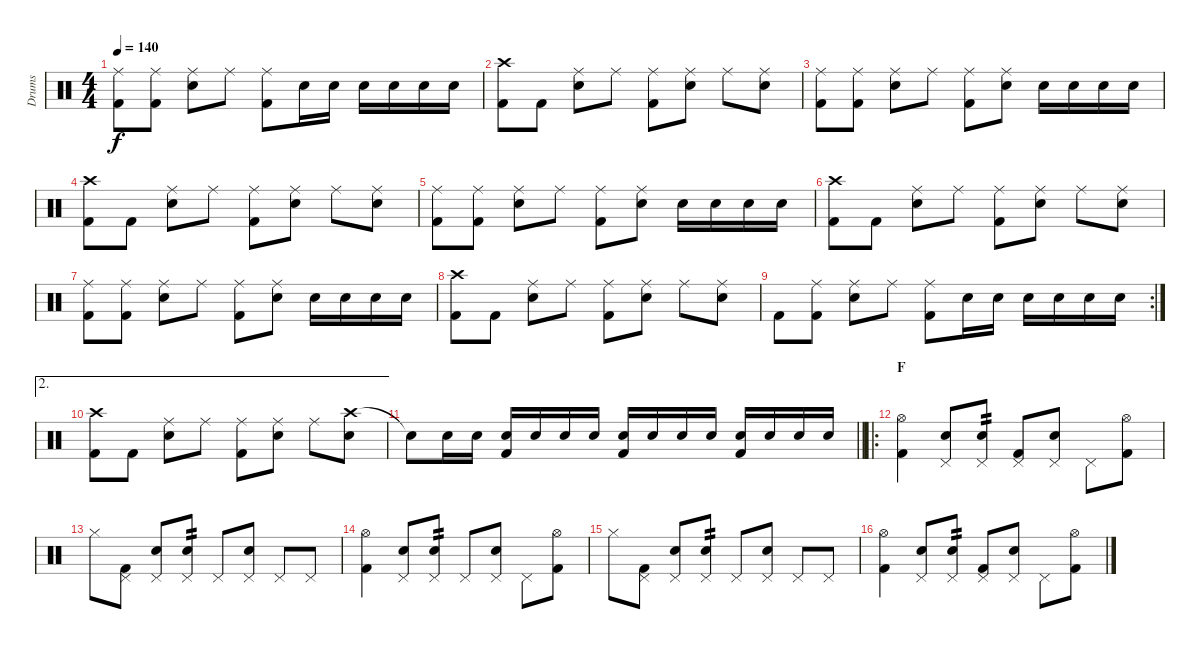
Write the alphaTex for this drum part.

\track ("Drums" "Drums") {instrument percussion}
\staff {score}
\articulation defaults
\ts (4 4)
\tempo 140
\clef neutral
\ks c
("Ride (middle)" "Kick (hit) 2").8{dy f} ("Ride (middle)" "Kick (hit) 2").8 ("Ride (middle)" "Snare (hit) 2").8 "Ride (middle)".8 ("Ride (middle)" "Kick (hit) 2").8 "Snare (hit) 2".16 "Snare (hit) 2".16 "Snare (hit) 2".16 "Snare (hit) 2".16 "Snare (hit) 2".16 "Snare (hit) 2".16 |
("Crash high (hit)" "Kick (hit) 2").8 "Kick (hit) 2".8 ("Ride (middle)" "Snare (hit) 2").8 "Ride (middle)".8 ("Ride (middle)" "Kick (hit) 2").8 ("Ride (middle)" "Snare (hit) 2").8 "Ride (middle)".8 ("Ride (middle)" "Snare (hit) 2").8 |
("Ride (middle)" "Kick (hit) 2").8 ("Ride (middle)" "Kick (hit) 2").8 ("Ride (middle)" "Snare (hit) 2").8 "Ride (middle)".8 ("Ride (middle)" "Kick (hit) 2").8 ("Ride (middle)" "Snare (hit) 2").8 "Snare (hit) 2".16 "Snare (hit) 2".16 "Snare (hit) 2".16 "Snare (hit) 2".16 |
("Crash high (hit)" "Kick (hit) 2").8 "Kick (hit) 2".8 ("Ride (middle)" "Snare (hit) 2").8 "Ride (middle)".8 ("Ride (middle)" "Kick (hit) 2").8 ("Ride (middle)" "Snare (hit) 2").8 "Ride (middle)".8 ("Ride (middle)" "Snare (hit) 2").8 |
("Ride (middle)" "Kick (hit) 2").8 ("Ride (middle)" "Kick (hit) 2").8 ("Ride (middle)" "Snare (hit) 2").8 "Ride (middle)".8 ("Ride (middle)" "Kick (hit) 2").8 ("Ride (middle)" "Snare (hit) 2").8 "Snare (hit) 2".16 "Snare (hit) 2".16 "Snare (hit) 2".16 "Snare (hit) 2".16 |
("Crash high (hit)" "Kick (hit) 2").8 "Kick (hit) 2".8 ("Ride (middle)" "Snare (hit) 2").8 "Ride (middle)".8 ("Ride (middle)" "Kick (hit) 2").8 ("Ride (middle)" "Snare (hit) 2").8 "Ride (middle)".8 ("Ride (middle)" "Snare (hit) 2").8 |
("Ride (middle)" "Kick (hit) 2").8 ("Ride (middle)" "Kick (hit) 2").8 ("Ride (middle)" "Snare (hit) 2").8 "Ride (middle)".8 ("Ride (middle)" "Kick (hit) 2").8 ("Ride (middle)" "Snare (hit) 2").8 "Snare (hit) 2".16 "Snare (hit) 2".16 "Snare (hit) 2".16 "Snare (hit) 2".16 |
("Crash high (hit)" "Kick (hit) 2").8 "Kick (hit) 2".8 ("Ride (middle)" "Snare (hit) 2").8 "Ride (middle)".8 ("Ride (middle)" "Kick (hit) 2").8 ("Ride (middle)" "Snare (hit) 2").8 "Ride (middle)".8 ("Ride (middle)" "Snare (hit) 2").8 |
\rc 2 "Kick (hit) 2".8
("Ride (middle)" "Kick (hit) 2").8 ("Ride (middle)" "Snare (hit) 2").8 "Ride (middle)".8 ("Ride (middle)" "Kick (hit) 2").8 "Snare (hit) 2".16 "Snare (hit) 2".16 "Snare (hit) 2".16 "Snare (hit) 2".16 "Snare (hit) 2".16 "Snare (hit) 2".16 |
\ae 2
("Crash high (hit)" "Kick (hit) 2").8 "Kick (hit) 2".8 ("Ride (middle)" "Snare (hit) 2").8 "Ride (middle)".8 ("Ride (middle)" "Kick (hit) 2").8 ("Ride (middle)" "Snare (hit) 2").8 "Ride (middle)".8 ("Crash high (hit)" "Snare (hit) 2").8 |
\barLineRight lightlight "Snare (hit)"{t}.8 "Snare (hit) 2".16 "Snare (hit) 2".16
("Snare (hit) 2" "Kick (hit) 2").16 "Snare (hit) 2".16 "Snare (hit) 2".16 "Snare (hit) 2".16 ("Snare (hit) 2" "Kick (hit) 2").16 "Snare (hit) 2".16 "Snare (hit) 2".16 "Snare (hit) 2".16 ("Snare (hit) 2" "Kick (hit) 2").16 "Snare (hit) 2".16 "Snare (hit) 2".16 "Snare (hit) 2".16 |
\ro
\section ("" "F")
("Hi-Hat (open)" "Kick (hit) 2").4 ("Pedal Hi-Hat (hit)" "Snare (hit) 2").8 ("Pedal Hi-Hat (hit)" "Snare (hit) 2").8{tp 2} ("Pedal Hi-Hat (hit)" "Kick (hit) 2").8 ("Pedal Hi-Hat (hit)" "Snare (hit) 2").8 "Pedal Hi-Hat (hit)".8 ("Hi-Hat (open)" "Kick (hit) 2").8 |
"Hi-Hat (closed)".8 ("Pedal Hi-Hat (hit)" "Kick (hit) 2").8 ("Pedal Hi-Hat (hit)" "Snare (hit) 2").8 ("Pedal Hi-Hat (hit)" "Snare (hit) 2").8{tp 2} "Pedal Hi-Hat (hit)".8 ("Pedal Hi-Hat (hit)" "Snare (hit) 2").8 "Pedal Hi-Hat (hit)".8 "Pedal Hi-Hat (hit)".8 |
("Hi-Hat (open)" "Kick (hit) 2").4 ("Pedal Hi-Hat (hit)" "Snare (hit) 2").8 ("Pedal Hi-Hat (hit)" "Snare (hit) 2").8{tp 2} "Pedal Hi-Hat (hit)".8 ("Pedal Hi-Hat (hit)" "Snare (hit) 2").8 "Pedal Hi-Hat (hit)".8 ("Hi-Hat (open)" "Kick (hit) 2").8 |
"Hi-Hat (closed)".8 ("Pedal Hi-Hat (hit)" "Kick (hit) 2").8 ("Pedal Hi-Hat (hit)" "Snare (hit) 2").8 ("Pedal Hi-Hat (hit)" "Snare (hit) 2").8{tp 2} "Pedal Hi-Hat (hit)".8 ("Pedal Hi-Hat (hit)" "Snare (hit) 2").8 "Pedal Hi-Hat (hit)".8 "Pedal Hi-Hat (hit)".8 |
("Hi-Hat (open)" "Kick (hit) 2").4 ("Pedal Hi-Hat (hit)" "Snare (hit) 2").8 ("Pedal Hi-Hat (hit)" "Snare (hit) 2").8{tp 2} ("Pedal Hi-Hat (hit)" "Kick (hit) 2").8 ("Pedal Hi-Hat (hit)" "Snare (hit) 2").8 "Pedal Hi-Hat (hit)".8 ("Hi-Hat (open)" "Kick (hit) 2").8
